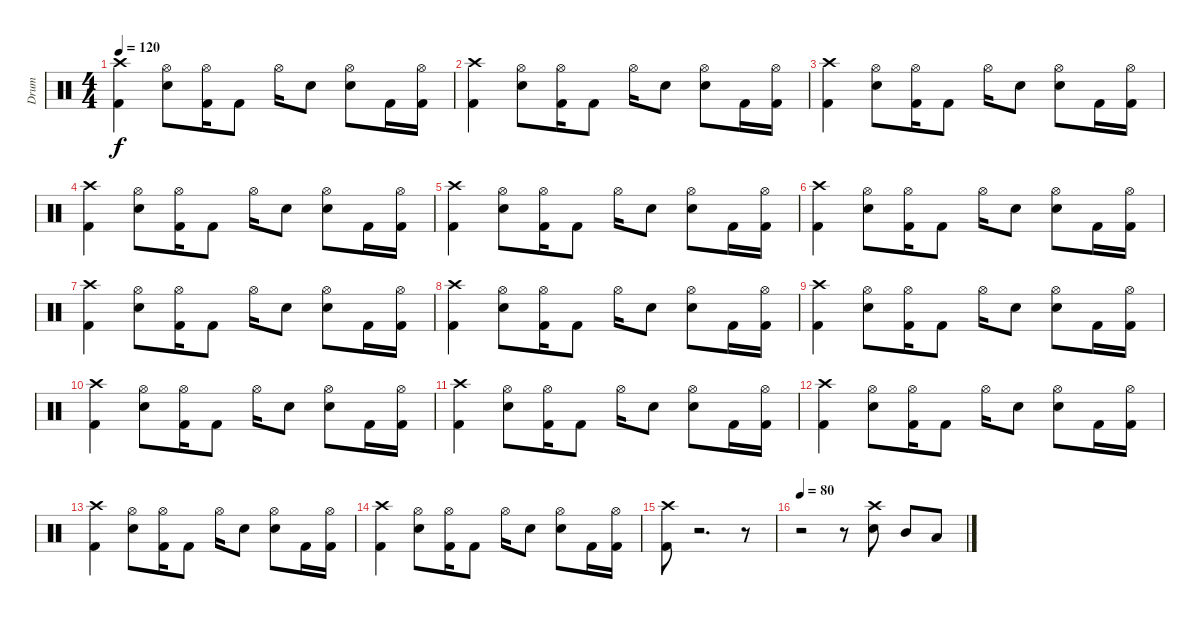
\track ("Drum" "Drum") {instrument percussion}
\staff {score}
\articulation defaults
\ts (4 4)
\tempo 120
\clef neutral
\ks c
("Crash high (hit)" "Kick (hit) 2").4{dy f} ("Hi-Hat (open)" "Electric Snare (hit)").8 ("Hi-Hat (open)" "Kick (hit) 2").16 "Kick (hit) 2".8 "Hi-Hat (open)".16 "Electric Snare (hit)".8 ("Hi-Hat (open)" "Electric Snare (hit)").8 "Kick (hit) 2".16 ("Hi-Hat (open)" "Kick (hit) 2").16 |
("Crash high (hit)" "Kick (hit) 2").4 ("Hi-Hat (open)" "Electric Snare (hit)").8 ("Hi-Hat (open)" "Kick (hit) 2").16 "Kick (hit) 2".8 "Hi-Hat (open)".16 "Electric Snare (hit)".8 ("Hi-Hat (open)" "Electric Snare (hit)").8 "Kick (hit) 2".16 ("Hi-Hat (open)" "Kick (hit) 2").16 |
("Crash high (hit)" "Kick (hit) 2").4 ("Hi-Hat (open)" "Electric Snare (hit)").8 ("Hi-Hat (open)" "Kick (hit) 2").16 "Kick (hit) 2".8 "Hi-Hat (open)".16 "Electric Snare (hit)".8 ("Hi-Hat (open)" "Electric Snare (hit)").8 "Kick (hit) 2".16 ("Hi-Hat (open)" "Kick (hit) 2").16 |
("Crash high (hit)" "Kick (hit) 2").4 ("Hi-Hat (open)" "Electric Snare (hit)").8 ("Hi-Hat (open)" "Kick (hit) 2").16 "Kick (hit) 2".8 "Hi-Hat (open)".16 "Electric Snare (hit)".8 ("Hi-Hat (open)" "Electric Snare (hit)").8 "Kick (hit) 2".16 ("Hi-Hat (open)" "Kick (hit) 2").16 |
("Crash high (hit)" "Kick (hit) 2").4 ("Hi-Hat (open)" "Electric Snare (hit)").8 ("Hi-Hat (open)" "Kick (hit) 2").16 "Kick (hit) 2".8 "Hi-Hat (open)".16 "Electric Snare (hit)".8 ("Hi-Hat (open)" "Electric Snare (hit)").8 "Kick (hit) 2".16 ("Hi-Hat (open)" "Kick (hit) 2").16 |
("Crash high (hit)" "Kick (hit) 2").4 ("Hi-Hat (open)" "Electric Snare (hit)").8 ("Hi-Hat (open)" "Kick (hit) 2").16 "Kick (hit) 2".8 "Hi-Hat (open)".16 "Electric Snare (hit)".8 ("Hi-Hat (open)" "Electric Snare (hit)").8 "Kick (hit) 2".16 ("Hi-Hat (open)" "Kick (hit) 2").16 |
("Crash high (hit)" "Kick (hit) 2").4 ("Hi-Hat (open)" "Electric Snare (hit)").8 ("Hi-Hat (open)" "Kick (hit) 2").16 "Kick (hit) 2".8 "Hi-Hat (open)".16 "Electric Snare (hit)".8 ("Hi-Hat (open)" "Electric Snare (hit)").8 "Kick (hit) 2".16 ("Hi-Hat (open)" "Kick (hit) 2").16 |
("Crash high (hit)" "Kick (hit) 2").4 ("Hi-Hat (open)" "Electric Snare (hit)").8 ("Hi-Hat (open)" "Kick (hit) 2").16 "Kick (hit) 2".8 "Hi-Hat (open)".16 "Electric Snare (hit)".8 ("Hi-Hat (open)" "Electric Snare (hit)").8 "Kick (hit) 2".16 ("Hi-Hat (open)" "Kick (hit) 2").16 |
("Crash high (hit)" "Kick (hit) 2").4 ("Hi-Hat (open)" "Electric Snare (hit)").8 ("Hi-Hat (open)" "Kick (hit) 2").16 "Kick (hit) 2".8 "Hi-Hat (open)".16 "Electric Snare (hit)".8 ("Hi-Hat (open)" "Electric Snare (hit)").8 "Kick (hit) 2".16 ("Hi-Hat (open)" "Kick (hit) 2").16 |
("Crash high (hit)" "Kick (hit) 2").4 ("Hi-Hat (open)" "Electric Snare (hit)").8 ("Hi-Hat (open)" "Kick (hit) 2").16 "Kick (hit) 2".8 "Hi-Hat (open)".16 "Electric Snare (hit)".8 ("Hi-Hat (open)" "Electric Snare (hit)").8 "Kick (hit) 2".16 ("Hi-Hat (open)" "Kick (hit) 2").16 |
("Crash high (hit)" "Kick (hit) 2").4 ("Hi-Hat (open)" "Electric Snare (hit)").8 ("Hi-Hat (open)" "Kick (hit) 2").16 "Kick (hit) 2".8 "Hi-Hat (open)".16 "Electric Snare (hit)".8 ("Hi-Hat (open)" "Electric Snare (hit)").8 "Kick (hit) 2".16 ("Hi-Hat (open)" "Kick (hit) 2").16 |
("Crash high (hit)" "Kick (hit) 2").4 ("Hi-Hat (open)" "Electric Snare (hit)").8 ("Hi-Hat (open)" "Kick (hit) 2").16 "Kick (hit) 2".8 "Hi-Hat (open)".16 "Electric Snare (hit)".8 ("Hi-Hat (open)" "Electric Snare (hit)").8 "Kick (hit) 2".16 ("Hi-Hat (open)" "Kick (hit) 2").16 |
("Crash high (hit)" "Kick (hit) 2").4 ("Hi-Hat (open)" "Electric Snare (hit)").8 ("Hi-Hat (open)" "Kick (hit) 2").16 "Kick (hit) 2".8 "Hi-Hat (open)".16 "Electric Snare (hit)".8 ("Hi-Hat (open)" "Electric Snare (hit)").8 "Kick (hit) 2".16 ("Hi-Hat (open)" "Kick (hit) 2").16 |
("Crash high (hit)" "Kick (hit) 2").4 ("Hi-Hat (open)" "Electric Snare (hit)").8 ("Hi-Hat (open)" "Kick (hit) 2").16 "Kick (hit) 2".8 "Hi-Hat (open)".16 "Electric Snare (hit)".8 ("Hi-Hat (open)" "Electric Snare (hit)").8 "Kick (hit) 2".16 ("Hi-Hat (open)" "Kick (hit) 2").16 |
("Crash high (hit)" "Kick (hit) 2").8 r.2{d} r.8 |
\tempo 80
r.2 r.8 ("Crash high (hit)" "Electric Snare (hit)").8 "Mid Tom (hit)".8 "Low Tom (hit)".8
